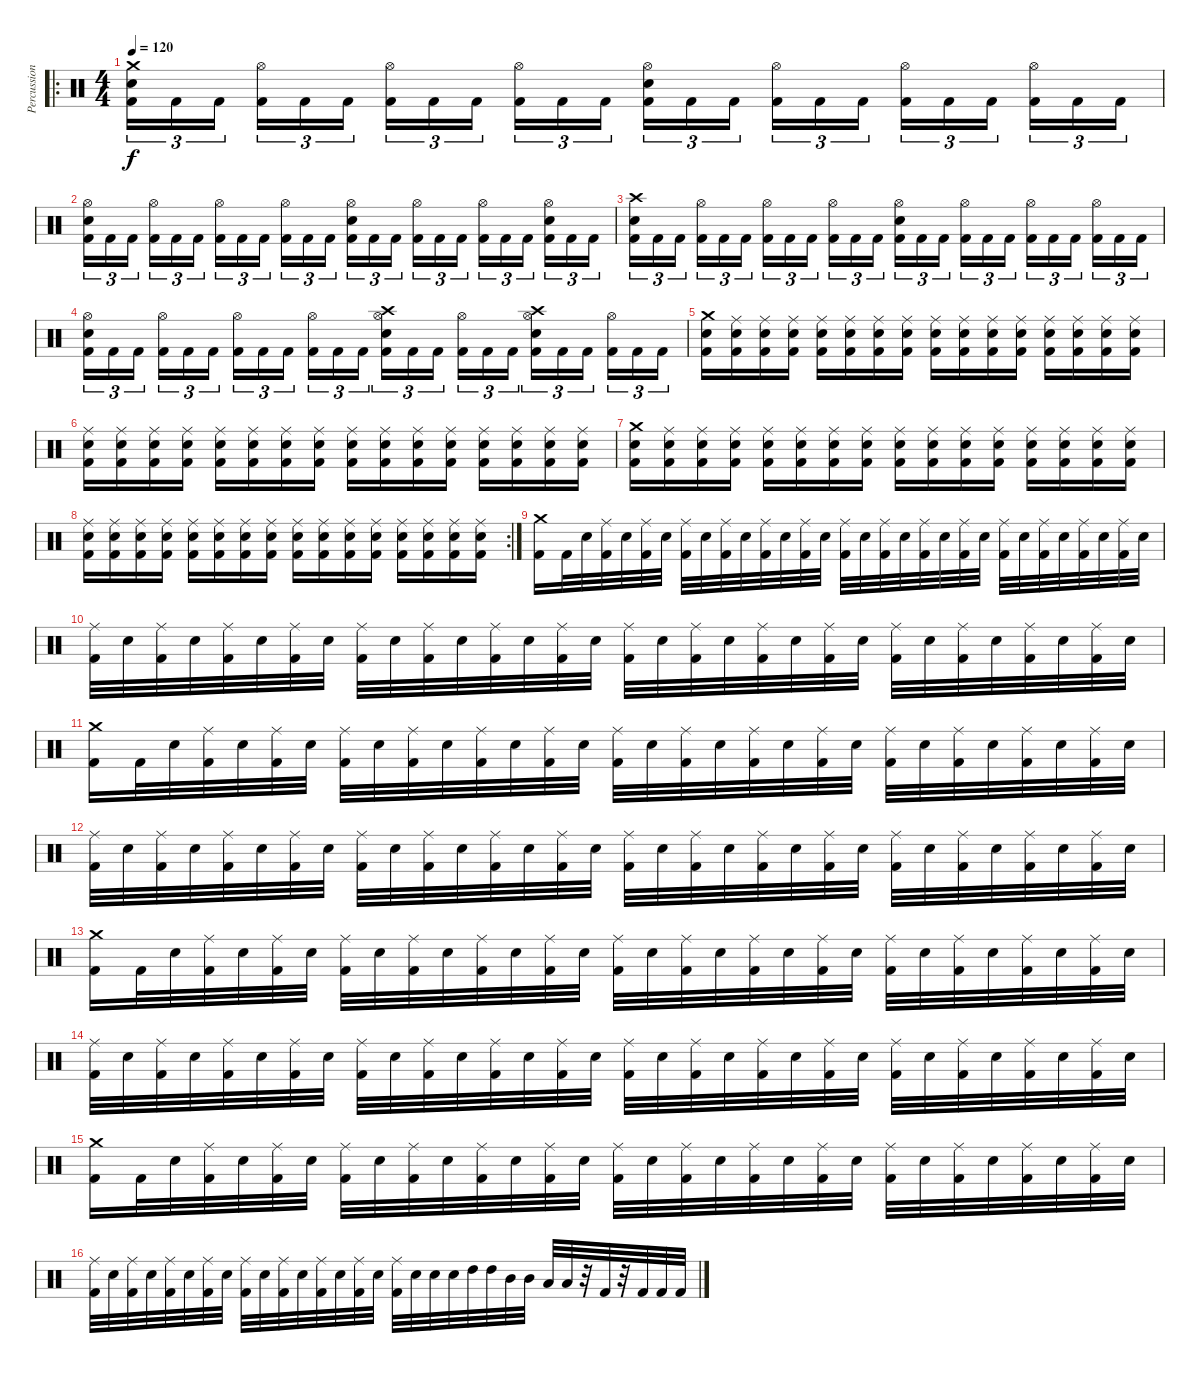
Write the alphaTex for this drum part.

\track ("Percussions" "Percussion") {instrument percussion}
\staff {score}
\articulation defaults
\ro
\ts (4 4)
\tempo 120
\clef neutral
\ks c
("Crash medium (hit)" "Electric Snare (hit)" "Kick (hit) 2").16{tu (3 2) dy f} "Kick (hit) 2".16{tu (3 2)} "Kick (hit) 2".16{tu (3 2) beam splitsecondary} ("Hi-Hat (open)" "Kick (hit) 2").16{tu (3 2)} "Kick (hit) 2".16{tu (3 2)} "Kick (hit) 2".16{tu (3 2)} ("Hi-Hat (open)" "Kick (hit) 2").16{tu (3 2)} "Kick (hit) 2".16{tu (3 2)} "Kick (hit) 2".16{tu (3 2) beam splitsecondary} ("Hi-Hat (open)" "Kick (hit) 2").16{tu (3 2)} "Kick (hit) 2".16{tu (3 2)} "Kick (hit) 2".16{tu (3 2)} ("Hi-Hat (open)" "Electric Snare (hit)" "Kick (hit) 2").16{tu (3 2)} "Kick (hit) 2".16{tu (3 2)} "Kick (hit) 2".16{tu (3 2) beam splitsecondary} ("Hi-Hat (open)" "Kick (hit) 2").16{tu (3 2)} "Kick (hit) 2".16{tu (3 2)} "Kick (hit) 2".16{tu (3 2)} ("Hi-Hat (open)" "Kick (hit) 2").16{tu (3 2)} "Kick (hit) 2".16{tu (3 2)} "Kick (hit) 2".16{tu (3 2) beam splitsecondary} ("Hi-Hat (open)" "Kick (hit) 2").16{tu (3 2)} "Kick (hit) 2".16{tu (3 2)} "Kick (hit) 2".16{tu (3 2)} |
("Hi-Hat (open)" "Electric Snare (hit)" "Kick (hit) 2").16{tu (3 2)} "Kick (hit) 2".16{tu (3 2)} "Kick (hit) 2".16{tu (3 2) beam splitsecondary} ("Hi-Hat (open)" "Kick (hit) 2").16{tu (3 2)} "Kick (hit) 2".16{tu (3 2)} "Kick (hit) 2".16{tu (3 2)} ("Hi-Hat (open)" "Kick (hit) 2").16{tu (3 2)} "Kick (hit) 2".16{tu (3 2)} "Kick (hit) 2".16{tu (3 2) beam splitsecondary} ("Hi-Hat (open)" "Kick (hit) 2").16{tu (3 2)} "Kick (hit) 2".16{tu (3 2)} "Kick (hit) 2".16{tu (3 2)} ("Hi-Hat (open)" "Electric Snare (hit)" "Kick (hit) 2").16{tu (3 2)} "Kick (hit) 2".16{tu (3 2)} "Kick (hit) 2".16{tu (3 2) beam splitsecondary} ("Hi-Hat (open)" "Kick (hit) 2").16{tu (3 2)} "Kick (hit) 2".16{tu (3 2)} "Kick (hit) 2".16{tu (3 2)} ("Hi-Hat (open)" "Kick (hit) 2").16{tu (3 2)} "Kick (hit) 2".16{tu (3 2)} "Kick (hit) 2".16{tu (3 2) beam splitsecondary} ("Hi-Hat (open)" "Electric Snare (hit)" "Kick (hit) 2").16{tu (3 2)} "Kick (hit) 2".16{tu (3 2)} "Kick (hit) 2".16{tu (3 2)} |
("Crash high (hit)" "Electric Snare (hit)" "Kick (hit) 2").16{tu (3 2)} "Kick (hit) 2".16{tu (3 2)} "Kick (hit) 2".16{tu (3 2) beam splitsecondary} ("Hi-Hat (open)" "Kick (hit) 2").16{tu (3 2)} "Kick (hit) 2".16{tu (3 2)} "Kick (hit) 2".16{tu (3 2)} ("Hi-Hat (open)" "Kick (hit) 2").16{tu (3 2)} "Kick (hit) 2".16{tu (3 2)} "Kick (hit) 2".16{tu (3 2) beam splitsecondary} ("Hi-Hat (open)" "Kick (hit) 2").16{tu (3 2)} "Kick (hit) 2".16{tu (3 2)} "Kick (hit) 2".16{tu (3 2)} ("Hi-Hat (open)" "Electric Snare (hit)" "Kick (hit) 2").16{tu (3 2)} "Kick (hit) 2".16{tu (3 2)} "Kick (hit) 2".16{tu (3 2) beam splitsecondary} ("Hi-Hat (open)" "Kick (hit) 2").16{tu (3 2)} "Kick (hit) 2".16{tu (3 2)} "Kick (hit) 2".16{tu (3 2)} ("Hi-Hat (open)" "Kick (hit) 2").16{tu (3 2)} "Kick (hit) 2".16{tu (3 2)} "Kick (hit) 2".16{tu (3 2) beam splitsecondary} ("Hi-Hat (open)" "Kick (hit) 2").16{tu (3 2)} "Kick (hit) 2".16{tu (3 2)} "Kick (hit) 2".16{tu (3 2)} |
("Hi-Hat (open)" "Electric Snare (hit)" "Kick (hit) 2").16{tu (3 2)} "Kick (hit) 2".16{tu (3 2)} "Kick (hit) 2".16{tu (3 2) beam splitsecondary} ("Hi-Hat (open)" "Kick (hit) 2").16{tu (3 2)} "Kick (hit) 2".16{tu (3 2)} "Kick (hit) 2".16{tu (3 2)} ("Hi-Hat (open)" "Kick (hit) 2").16{tu (3 2)} "Kick (hit) 2".16{tu (3 2)} "Kick (hit) 2".16{tu (3 2) beam splitsecondary} ("Hi-Hat (open)" "Kick (hit) 2").16{tu (3 2)} "Kick (hit) 2".16{tu (3 2)} "Kick (hit) 2".16{tu (3 2)} ("Crash high (hit)" "Hi-Hat (open)" "Electric Snare (hit)" "Kick (hit) 2").16{tu (3 2)} "Kick (hit) 2".16{tu (3 2)} "Kick (hit) 2".16{tu (3 2) beam splitsecondary} ("Hi-Hat (open)" "Kick (hit) 2").16{tu (3 2)} "Kick (hit) 2".16{tu (3 2)} "Kick (hit) 2".16{tu (3 2)} ("Crash high (hit)" "Hi-Hat (open)" "Electric Snare (hit)" "Kick (hit) 2").16{tu (3 2)} "Kick (hit) 2".16{tu (3 2)} "Kick (hit) 2".16{tu (3 2) beam splitsecondary} ("Hi-Hat (open)" "Kick (hit) 2").16{tu (3 2)} "Kick (hit) 2".16{tu (3 2)} "Kick (hit) 2".16{tu (3 2)} |
("Crash medium (hit)" "Electric Snare (hit)" "Kick (hit) 2").16 ("Ride (middle)" "Electric Snare (hit)" "Kick (hit) 2").16 ("Ride (middle)" "Electric Snare (hit)" "Kick (hit) 2").16 ("Ride (middle)" "Electric Snare (hit)" "Kick (hit) 2").16 ("Ride (middle)" "Electric Snare (hit)" "Kick (hit) 2").16 ("Ride (middle)" "Electric Snare (hit)" "Kick (hit) 2").16 ("Ride (middle)" "Electric Snare (hit)" "Kick (hit) 2").16 ("Ride (middle)" "Electric Snare (hit)" "Kick (hit) 2").16 ("Ride (middle)" "Electric Snare (hit)" "Kick (hit) 2").16 ("Ride (middle)" "Electric Snare (hit)" "Kick (hit) 2").16 ("Ride (middle)" "Electric Snare (hit)" "Kick (hit) 2").16 ("Ride (middle)" "Electric Snare (hit)" "Kick (hit) 2").16 ("Ride (middle)" "Electric Snare (hit)" "Kick (hit) 2").16 ("Ride (middle)" "Electric Snare (hit)" "Kick (hit) 2").16 ("Ride (middle)" "Electric Snare (hit)" "Kick (hit) 2").16 ("Ride (middle)" "Electric Snare (hit)" "Kick (hit) 2").16 |
("Ride (middle)" "Electric Snare (hit)" "Kick (hit) 2").16 ("Ride (middle)" "Electric Snare (hit)" "Kick (hit) 2").16 ("Ride (middle)" "Electric Snare (hit)" "Kick (hit) 2").16 ("Ride (middle)" "Electric Snare (hit)" "Kick (hit) 2").16 ("Ride (middle)" "Electric Snare (hit)" "Kick (hit) 2").16 ("Ride (middle)" "Electric Snare (hit)" "Kick (hit) 2").16 ("Ride (middle)" "Electric Snare (hit)" "Kick (hit) 2").16 ("Ride (middle)" "Electric Snare (hit)" "Kick (hit) 2").16 ("Ride (middle)" "Electric Snare (hit)" "Kick (hit) 2").16 ("Ride (middle)" "Electric Snare (hit)" "Kick (hit) 2").16 ("Ride (middle)" "Electric Snare (hit)" "Kick (hit) 2").16 ("Ride (middle)" "Electric Snare (hit)" "Kick (hit) 2").16 ("Ride (middle)" "Electric Snare (hit)" "Kick (hit) 2").16 ("Ride (middle)" "Electric Snare (hit)" "Kick (hit) 2").16 ("Ride (middle)" "Electric Snare (hit)" "Kick (hit) 2").16 ("Ride (middle)" "Electric Snare (hit)" "Kick (hit) 2").16 |
("Crash medium (hit)" "Electric Snare (hit)" "Kick (hit) 2").16 ("Ride (middle)" "Electric Snare (hit)" "Kick (hit) 2").16 ("Ride (middle)" "Electric Snare (hit)" "Kick (hit) 2").16 ("Ride (middle)" "Electric Snare (hit)" "Kick (hit) 2").16 ("Ride (middle)" "Electric Snare (hit)" "Kick (hit) 2").16 ("Ride (middle)" "Electric Snare (hit)" "Kick (hit) 2").16 ("Ride (middle)" "Electric Snare (hit)" "Kick (hit) 2").16 ("Ride (middle)" "Electric Snare (hit)" "Kick (hit) 2").16 ("Ride (middle)" "Electric Snare (hit)" "Kick (hit) 2").16 ("Ride (middle)" "Electric Snare (hit)" "Kick (hit) 2").16 ("Ride (middle)" "Electric Snare (hit)" "Kick (hit) 2").16 ("Ride (middle)" "Electric Snare (hit)" "Kick (hit) 2").16 ("Ride (middle)" "Electric Snare (hit)" "Kick (hit) 2").16 ("Ride (middle)" "Electric Snare (hit)" "Kick (hit) 2").16 ("Ride (middle)" "Electric Snare (hit)" "Kick (hit) 2").16 ("Ride (middle)" "Electric Snare (hit)" "Kick (hit) 2").16 |
\rc 2
("Ride (middle)" "Electric Snare (hit)" "Kick (hit) 2").16 ("Ride (middle)" "Electric Snare (hit)" "Kick (hit) 2").16 ("Ride (middle)" "Electric Snare (hit)" "Kick (hit) 2").16 ("Ride (middle)" "Electric Snare (hit)" "Kick (hit) 2").16 ("Ride (middle)" "Electric Snare (hit)" "Kick (hit) 2").16 ("Ride (middle)" "Electric Snare (hit)" "Kick (hit) 2").16 ("Ride (middle)" "Electric Snare (hit)" "Kick (hit) 2").16 ("Ride (middle)" "Electric Snare (hit)" "Kick (hit) 2").16 ("Ride (middle)" "Electric Snare (hit)" "Kick (hit) 2").16 ("Ride (middle)" "Electric Snare (hit)" "Kick (hit) 2").16 ("Ride (middle)" "Electric Snare (hit)" "Kick (hit) 2").16 ("Ride (middle)" "Electric Snare (hit)" "Kick (hit) 2").16 ("Ride (middle)" "Electric Snare (hit)" "Kick (hit) 2").16 ("Ride (middle)" "Electric Snare (hit)" "Kick (hit) 2").16 ("Ride (middle)" "Electric Snare (hit)" "Kick (hit) 2").16 ("Ride (middle)" "Electric Snare (hit)" "Kick (hit) 2").16 |
("Kick (hit) 2" "Crash medium (hit)").16 "Kick (hit) 2".32 "Electric Snare (hit)".32 ("Kick (hit) 2" "Ride (middle)").32 "Electric Snare (hit)".32 ("Kick (hit) 2" "Ride (middle)").32 "Electric Snare (hit)".32 ("Kick (hit) 2" "Ride (middle)").32 "Electric Snare (hit)".32 ("Kick (hit) 2" "Ride (middle)").32 "Electric Snare (hit)".32 ("Kick (hit) 2" "Ride (middle)").32 "Electric Snare (hit)".32 ("Kick (hit) 2" "Ride (middle)").32 "Electric Snare (hit)".32 ("Kick (hit) 2" "Ride (middle)").32 "Electric Snare (hit)".32 ("Kick (hit) 2" "Ride (middle)").32 "Electric Snare (hit)".32 ("Kick (hit) 2" "Ride (middle)").32 "Electric Snare (hit)".32 ("Kick (hit) 2" "Ride (middle)").32 "Electric Snare (hit)".32 ("Kick (hit) 2" "Ride (middle)").32 "Electric Snare (hit)".32 ("Kick (hit) 2" "Ride (middle)").32 "Electric Snare (hit)".32 ("Kick (hit) 2" "Ride (middle)").32 "Electric Snare (hit)".32 ("Kick (hit) 2" "Ride (middle)").32 "Electric Snare (hit)".32 |
("Kick (hit) 2" "Ride (middle)").32 "Electric Snare (hit)".32 ("Kick (hit) 2" "Ride (middle)").32 "Electric Snare (hit)".32 ("Kick (hit) 2" "Ride (middle)").32 "Electric Snare (hit)".32 ("Kick (hit) 2" "Ride (middle)").32 "Electric Snare (hit)".32 ("Kick (hit) 2" "Ride (middle)").32 "Electric Snare (hit)".32 ("Kick (hit) 2" "Ride (middle)").32 "Electric Snare (hit)".32 ("Kick (hit) 2" "Ride (middle)").32 "Electric Snare (hit)".32 ("Kick (hit) 2" "Ride (middle)").32 "Electric Snare (hit)".32 ("Kick (hit) 2" "Ride (middle)").32 "Electric Snare (hit)".32 ("Kick (hit) 2" "Ride (middle)").32 "Electric Snare (hit)".32 ("Kick (hit) 2" "Ride (middle)").32 "Electric Snare (hit)".32 ("Kick (hit) 2" "Ride (middle)").32 "Electric Snare (hit)".32 ("Kick (hit) 2" "Ride (middle)").32 "Electric Snare (hit)".32 ("Kick (hit) 2" "Ride (middle)").32 "Electric Snare (hit)".32 ("Kick (hit) 2" "Ride (middle)").32 "Electric Snare (hit)".32 ("Kick (hit) 2" "Ride (middle)").32 "Electric Snare (hit)".32 |
("Kick (hit) 2" "Crash medium (hit)").16 "Kick (hit) 2".32 "Electric Snare (hit)".32 ("Kick (hit) 2" "Ride (middle)").32 "Electric Snare (hit)".32 ("Kick (hit) 2" "Ride (middle)").32 "Electric Snare (hit)".32 ("Kick (hit) 2" "Ride (middle)").32 "Electric Snare (hit)".32 ("Kick (hit) 2" "Ride (middle)").32 "Electric Snare (hit)".32 ("Kick (hit) 2" "Ride (middle)").32 "Electric Snare (hit)".32 ("Kick (hit) 2" "Ride (middle)").32 "Electric Snare (hit)".32 ("Kick (hit) 2" "Ride (middle)").32 "Electric Snare (hit)".32 ("Kick (hit) 2" "Ride (middle)").32 "Electric Snare (hit)".32 ("Kick (hit) 2" "Ride (middle)").32 "Electric Snare (hit)".32 ("Kick (hit) 2" "Ride (middle)").32 "Electric Snare (hit)".32 ("Kick (hit) 2" "Ride (middle)").32 "Electric Snare (hit)".32 ("Kick (hit) 2" "Ride (middle)").32 "Electric Snare (hit)".32 ("Kick (hit) 2" "Ride (middle)").32 "Electric Snare (hit)".32 ("Kick (hit) 2" "Ride (middle)").32 "Electric Snare (hit)".32 |
("Kick (hit) 2" "Ride (middle)").32 "Electric Snare (hit)".32 ("Kick (hit) 2" "Ride (middle)").32 "Electric Snare (hit)".32 ("Kick (hit) 2" "Ride (middle)").32 "Electric Snare (hit)".32 ("Kick (hit) 2" "Ride (middle)").32 "Electric Snare (hit)".32 ("Kick (hit) 2" "Ride (middle)").32 "Electric Snare (hit)".32 ("Kick (hit) 2" "Ride (middle)").32 "Electric Snare (hit)".32 ("Kick (hit) 2" "Ride (middle)").32 "Electric Snare (hit)".32 ("Kick (hit) 2" "Ride (middle)").32 "Electric Snare (hit)".32 ("Kick (hit) 2" "Ride (middle)").32 "Electric Snare (hit)".32 ("Kick (hit) 2" "Ride (middle)").32 "Electric Snare (hit)".32 ("Kick (hit) 2" "Ride (middle)").32 "Electric Snare (hit)".32 ("Kick (hit) 2" "Ride (middle)").32 "Electric Snare (hit)".32 ("Kick (hit) 2" "Ride (middle)").32 "Electric Snare (hit)".32 ("Kick (hit) 2" "Ride (middle)").32 "Electric Snare (hit)".32 ("Kick (hit) 2" "Ride (middle)").32 "Electric Snare (hit)".32 ("Kick (hit) 2" "Ride (middle)").32 "Electric Snare (hit)".32 |
("Kick (hit) 2" "Crash medium (hit)").16 "Kick (hit) 2".32 "Electric Snare (hit)".32 ("Kick (hit) 2" "Ride (middle)").32 "Electric Snare (hit)".32 ("Kick (hit) 2" "Ride (middle)").32 "Electric Snare (hit)".32 ("Kick (hit) 2" "Ride (middle)").32 "Electric Snare (hit)".32 ("Kick (hit) 2" "Ride (middle)").32 "Electric Snare (hit)".32 ("Kick (hit) 2" "Ride (middle)").32 "Electric Snare (hit)".32 ("Kick (hit) 2" "Ride (middle)").32 "Electric Snare (hit)".32 ("Kick (hit) 2" "Ride (middle)").32 "Electric Snare (hit)".32 ("Kick (hit) 2" "Ride (middle)").32 "Electric Snare (hit)".32 ("Kick (hit) 2" "Ride (middle)").32 "Electric Snare (hit)".32 ("Kick (hit) 2" "Ride (middle)").32 "Electric Snare (hit)".32 ("Kick (hit) 2" "Ride (middle)").32 "Electric Snare (hit)".32 ("Kick (hit) 2" "Ride (middle)").32 "Electric Snare (hit)".32 ("Kick (hit) 2" "Ride (middle)").32 "Electric Snare (hit)".32 ("Kick (hit) 2" "Ride (middle)").32 "Electric Snare (hit)".32 |
("Kick (hit) 2" "Ride (middle)").32 "Electric Snare (hit)".32 ("Kick (hit) 2" "Ride (middle)").32 "Electric Snare (hit)".32 ("Kick (hit) 2" "Ride (middle)").32 "Electric Snare (hit)".32 ("Kick (hit) 2" "Ride (middle)").32 "Electric Snare (hit)".32 ("Kick (hit) 2" "Ride (middle)").32 "Electric Snare (hit)".32 ("Kick (hit) 2" "Ride (middle)").32 "Electric Snare (hit)".32 ("Kick (hit) 2" "Ride (middle)").32 "Electric Snare (hit)".32 ("Kick (hit) 2" "Ride (middle)").32 "Electric Snare (hit)".32 ("Kick (hit) 2" "Ride (middle)").32 "Electric Snare (hit)".32 ("Kick (hit) 2" "Ride (middle)").32 "Electric Snare (hit)".32 ("Kick (hit) 2" "Ride (middle)").32 "Electric Snare (hit)".32 ("Kick (hit) 2" "Ride (middle)").32 "Electric Snare (hit)".32 ("Kick (hit) 2" "Ride (middle)").32 "Electric Snare (hit)".32 ("Kick (hit) 2" "Ride (middle)").32 "Electric Snare (hit)".32 ("Kick (hit) 2" "Ride (middle)").32 "Electric Snare (hit)".32 ("Kick (hit) 2" "Ride (middle)").32 "Electric Snare (hit)".32 |
("Kick (hit) 2" "Crash medium (hit)").16 "Kick (hit) 2".32 "Electric Snare (hit)".32 ("Kick (hit) 2" "Ride (middle)").32 "Electric Snare (hit)".32 ("Kick (hit) 2" "Ride (middle)").32 "Electric Snare (hit)".32 ("Kick (hit) 2" "Ride (middle)").32 "Electric Snare (hit)".32 ("Kick (hit) 2" "Ride (middle)").32 "Electric Snare (hit)".32 ("Kick (hit) 2" "Ride (middle)").32 "Electric Snare (hit)".32 ("Kick (hit) 2" "Ride (middle)").32 "Electric Snare (hit)".32 ("Kick (hit) 2" "Ride (middle)").32 "Electric Snare (hit)".32 ("Kick (hit) 2" "Ride (middle)").32 "Electric Snare (hit)".32 ("Kick (hit) 2" "Ride (middle)").32 "Electric Snare (hit)".32 ("Kick (hit) 2" "Ride (middle)").32 "Electric Snare (hit)".32 ("Kick (hit) 2" "Ride (middle)").32 "Electric Snare (hit)".32 ("Kick (hit) 2" "Ride (middle)").32 "Electric Snare (hit)".32 ("Kick (hit) 2" "Ride (middle)").32 "Electric Snare (hit)".32 ("Kick (hit) 2" "Ride (middle)").32 "Electric Snare (hit)".32 |
("Kick (hit) 2" "Ride (middle)").32 "Electric Snare (hit)".32 ("Kick (hit) 2" "Ride (middle)").32 "Electric Snare (hit)".32 ("Kick (hit) 2" "Ride (middle)").32 "Electric Snare (hit)".32 ("Kick (hit) 2" "Ride (middle)").32 "Electric Snare (hit)".32 ("Kick (hit) 2" "Ride (middle)").32 "Electric Snare (hit)".32 ("Kick (hit) 2" "Ride (middle)").32 "Electric Snare (hit)".32 ("Kick (hit) 2" "Ride (middle)").32 "Electric Snare (hit)".32 ("Kick (hit) 2" "Ride (middle)").32 "Electric Snare (hit)".32 ("Kick (hit) 2" "Ride (middle)").32 "Electric Snare (hit)".32 "Electric Snare (hit)".32 "Electric Snare (hit)".32 "High Tom (hit)".32 "High Tom (hit)".32 "Mid Tom (hit)".32 "Mid Tom (hit)".32 "Low Tom (hit)".32 "Low Tom (hit)".32 r.32 "Kick (hit) 2".32 r.32 "Kick (hit) 2".32 "Kick (hit) 2".32 "Kick (hit) 2".32
